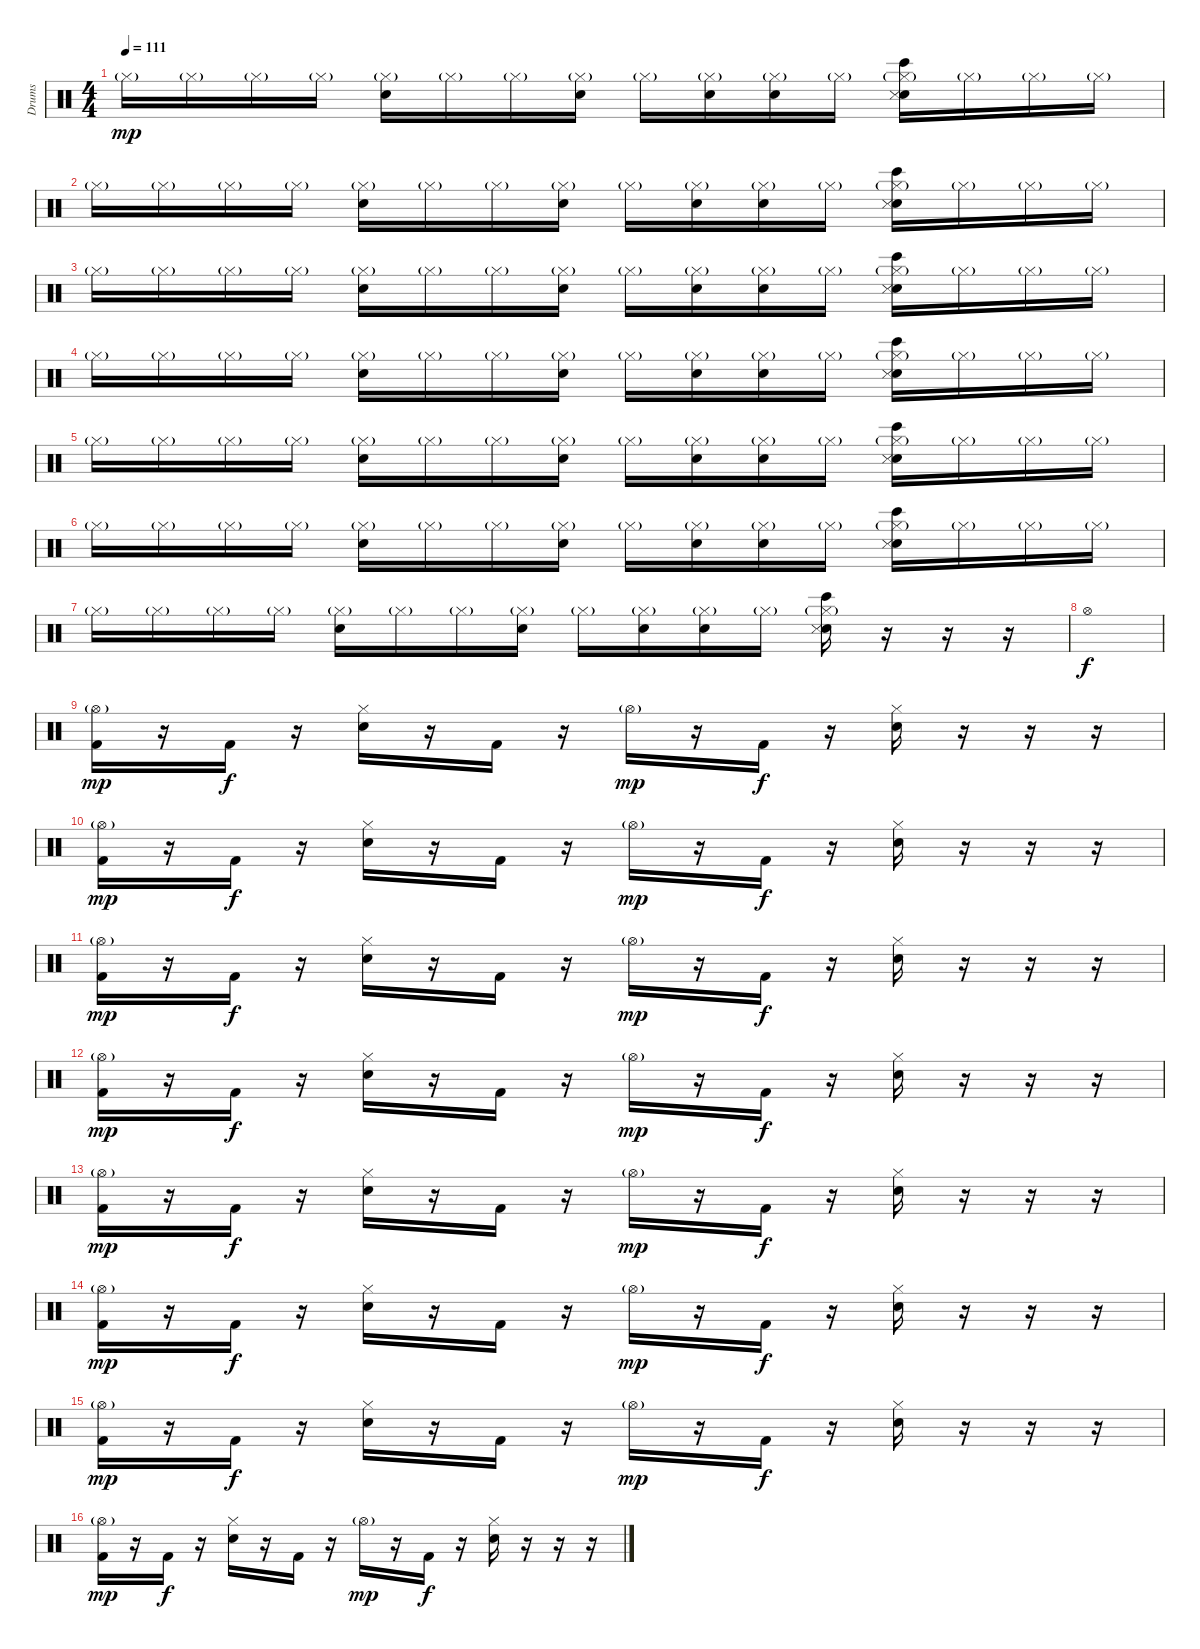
\track ("Drums" "Drums") {instrument percussion}
\staff {score}
\articulation defaults
\ts (4 4)
\tempo 111
\clef neutral
\ks c "Hi-Hat (closed)"{g}.16{dy mp} "Hi-Hat (closed)"{g}.16 "Hi-Hat (closed)"{g}.16 "Hi-Hat (closed)"{g}.16
("Snare (hit) 2" "Hi-Hat (closed)"{g}).16 "Hi-Hat (closed)"{g}.16 "Hi-Hat (closed)"{g}.16 ("Snare (hit) 2" "Hi-Hat (closed)"{g}).16 "Hi-Hat (closed)"{g}.16 ("Snare (hit) 2" "Hi-Hat (closed)"{g}).16 ("Snare (hit) 2" "Hi-Hat (closed)"{g}).16 "Hi-Hat (closed)"{g}.16 ("Bongo High (hit)" "Snare (hit) 2" "Snare (side stick) 3" "Hi-Hat (closed)"{g}).16 "Hi-Hat (closed)"{g}.16 "Hi-Hat (closed)"{g}.16 "Hi-Hat (closed)"{g}.16 |
"Hi-Hat (closed)"{g}.16 "Hi-Hat (closed)"{g}.16 "Hi-Hat (closed)"{g}.16 "Hi-Hat (closed)"{g}.16 ("Snare (hit) 2" "Hi-Hat (closed)"{g}).16 "Hi-Hat (closed)"{g}.16 "Hi-Hat (closed)"{g}.16 ("Snare (hit) 2" "Hi-Hat (closed)"{g}).16 "Hi-Hat (closed)"{g}.16 ("Snare (hit) 2" "Hi-Hat (closed)"{g}).16 ("Snare (hit) 2" "Hi-Hat (closed)"{g}).16 "Hi-Hat (closed)"{g}.16 ("Bongo High (hit)" "Snare (hit) 2" "Snare (side stick) 3" "Hi-Hat (closed)"{g}).16 "Hi-Hat (closed)"{g}.16 "Hi-Hat (closed)"{g}.16 "Hi-Hat (closed)"{g}.16 |
"Hi-Hat (closed)"{g}.16 "Hi-Hat (closed)"{g}.16 "Hi-Hat (closed)"{g}.16 "Hi-Hat (closed)"{g}.16 ("Snare (hit) 2" "Hi-Hat (closed)"{g}).16 "Hi-Hat (closed)"{g}.16 "Hi-Hat (closed)"{g}.16 ("Snare (hit) 2" "Hi-Hat (closed)"{g}).16 "Hi-Hat (closed)"{g}.16 ("Snare (hit) 2" "Hi-Hat (closed)"{g}).16 ("Snare (hit) 2" "Hi-Hat (closed)"{g}).16 "Hi-Hat (closed)"{g}.16 ("Bongo High (hit)" "Snare (hit) 2" "Snare (side stick) 3" "Hi-Hat (closed)"{g}).16 "Hi-Hat (closed)"{g}.16 "Hi-Hat (closed)"{g}.16 "Hi-Hat (closed)"{g}.16 |
"Hi-Hat (closed)"{g}.16 "Hi-Hat (closed)"{g}.16 "Hi-Hat (closed)"{g}.16 "Hi-Hat (closed)"{g}.16 ("Snare (hit) 2" "Hi-Hat (closed)"{g}).16 "Hi-Hat (closed)"{g}.16 "Hi-Hat (closed)"{g}.16 ("Snare (hit) 2" "Hi-Hat (closed)"{g}).16 "Hi-Hat (closed)"{g}.16 ("Snare (hit) 2" "Hi-Hat (closed)"{g}).16 ("Snare (hit) 2" "Hi-Hat (closed)"{g}).16 "Hi-Hat (closed)"{g}.16 ("Bongo High (hit)" "Snare (hit) 2" "Snare (side stick) 3" "Hi-Hat (closed)"{g}).16 "Hi-Hat (closed)"{g}.16 "Hi-Hat (closed)"{g}.16 "Hi-Hat (closed)"{g}.16 |
"Hi-Hat (closed)"{g}.16 "Hi-Hat (closed)"{g}.16 "Hi-Hat (closed)"{g}.16 "Hi-Hat (closed)"{g}.16 ("Snare (hit) 2" "Hi-Hat (closed)"{g}).16 "Hi-Hat (closed)"{g}.16 "Hi-Hat (closed)"{g}.16 ("Snare (hit) 2" "Hi-Hat (closed)"{g}).16 "Hi-Hat (closed)"{g}.16 ("Snare (hit) 2" "Hi-Hat (closed)"{g}).16 ("Snare (hit) 2" "Hi-Hat (closed)"{g}).16 "Hi-Hat (closed)"{g}.16 ("Bongo High (hit)" "Snare (hit) 2" "Snare (side stick) 3" "Hi-Hat (closed)"{g}).16 "Hi-Hat (closed)"{g}.16 "Hi-Hat (closed)"{g}.16 "Hi-Hat (closed)"{g}.16 |
"Hi-Hat (closed)"{g}.16 "Hi-Hat (closed)"{g}.16 "Hi-Hat (closed)"{g}.16 "Hi-Hat (closed)"{g}.16 ("Snare (hit) 2" "Hi-Hat (closed)"{g}).16 "Hi-Hat (closed)"{g}.16 "Hi-Hat (closed)"{g}.16 ("Snare (hit) 2" "Hi-Hat (closed)"{g}).16 "Hi-Hat (closed)"{g}.16 ("Snare (hit) 2" "Hi-Hat (closed)"{g}).16 ("Snare (hit) 2" "Hi-Hat (closed)"{g}).16 "Hi-Hat (closed)"{g}.16 ("Bongo High (hit)" "Snare (hit) 2" "Snare (side stick) 3" "Hi-Hat (closed)"{g}).16 "Hi-Hat (closed)"{g}.16 "Hi-Hat (closed)"{g}.16 "Hi-Hat (closed)"{g}.16 |
"Hi-Hat (closed)"{g}.16 "Hi-Hat (closed)"{g}.16 "Hi-Hat (closed)"{g}.16 "Hi-Hat (closed)"{g}.16 ("Snare (hit) 2" "Hi-Hat (closed)"{g}).16 "Hi-Hat (closed)"{g}.16 "Hi-Hat (closed)"{g}.16 ("Snare (hit) 2" "Hi-Hat (closed)"{g}).16 "Hi-Hat (closed)"{g}.16 ("Snare (hit) 2" "Hi-Hat (closed)"{g}).16 ("Snare (hit) 2" "Hi-Hat (closed)"{g}).16 "Hi-Hat (closed)"{g}.16 ("Bongo High (hit)" "Snare (hit) 2" "Snare (side stick) 3" "Hi-Hat (closed)"{g}).16 r.16 r.16 r.16 |
"Hi-Hat (open)".1{dy f} |
("Hi-Hat (open)"{g} "Kick (hit) 2").16{dy mp} r.16 "Kick (hit) 2".16{dy f} r.16 ("Hi-Hat (closed)" "Snare (hit) 2").16 r.16 "Kick (hit) 2".16 r.16 "Hi-Hat (open)"{g}.16{dy mp} r.16 "Kick (hit) 2".16{dy f} r.16 ("Hi-Hat (closed)" "Snare (hit) 2").16 r.16 r.16 r.16 |
("Hi-Hat (open)"{g} "Kick (hit) 2").16{dy mp} r.16 "Kick (hit) 2".16{dy f} r.16 ("Hi-Hat (closed)" "Snare (hit) 2").16 r.16 "Kick (hit) 2".16 r.16 "Hi-Hat (open)"{g}.16{dy mp} r.16 "Kick (hit) 2".16{dy f} r.16 ("Hi-Hat (closed)" "Snare (hit) 2").16 r.16 r.16 r.16 |
("Hi-Hat (open)"{g} "Kick (hit) 2").16{dy mp} r.16 "Kick (hit) 2".16{dy f} r.16 ("Hi-Hat (closed)" "Snare (hit) 2").16 r.16 "Kick (hit) 2".16 r.16 "Hi-Hat (open)"{g}.16{dy mp} r.16 "Kick (hit) 2".16{dy f} r.16 ("Hi-Hat (closed)" "Snare (hit) 2").16 r.16 r.16 r.16 |
("Hi-Hat (open)"{g} "Kick (hit) 2").16{dy mp} r.16 "Kick (hit) 2".16{dy f} r.16 ("Hi-Hat (closed)" "Snare (hit) 2").16 r.16 "Kick (hit) 2".16 r.16 "Hi-Hat (open)"{g}.16{dy mp} r.16 "Kick (hit) 2".16{dy f} r.16 ("Hi-Hat (closed)" "Snare (hit) 2").16 r.16 r.16 r.16 |
("Hi-Hat (open)"{g} "Kick (hit) 2").16{dy mp} r.16 "Kick (hit) 2".16{dy f} r.16 ("Hi-Hat (closed)" "Snare (hit) 2").16 r.16 "Kick (hit) 2".16 r.16 "Hi-Hat (open)"{g}.16{dy mp} r.16 "Kick (hit) 2".16{dy f} r.16 ("Hi-Hat (closed)" "Snare (hit) 2").16 r.16 r.16 r.16 |
("Hi-Hat (open)"{g} "Kick (hit) 2").16{dy mp} r.16 "Kick (hit) 2".16{dy f} r.16 ("Hi-Hat (closed)" "Snare (hit) 2").16 r.16 "Kick (hit) 2".16 r.16 "Hi-Hat (open)"{g}.16{dy mp} r.16 "Kick (hit) 2".16{dy f} r.16 ("Hi-Hat (closed)" "Snare (hit) 2").16 r.16 r.16 r.16 |
("Hi-Hat (open)"{g} "Kick (hit) 2").16{dy mp} r.16 "Kick (hit) 2".16{dy f} r.16 ("Hi-Hat (closed)" "Snare (hit) 2").16 r.16 "Kick (hit) 2".16 r.16 "Hi-Hat (open)"{g}.16{dy mp} r.16 "Kick (hit) 2".16{dy f} r.16 ("Hi-Hat (closed)" "Snare (hit) 2").16 r.16 r.16 r.16 |
("Hi-Hat (open)"{g} "Kick (hit) 2").16{dy mp} r.16 "Kick (hit) 2".16{dy f} r.16 ("Hi-Hat (closed)" "Snare (hit) 2").16 r.16 "Kick (hit) 2".16 r.16 "Hi-Hat (open)"{g}.16{dy mp} r.16 "Kick (hit) 2".16{dy f} r.16 ("Hi-Hat (closed)" "Snare (hit) 2").16 r.16 r.16 r.16
